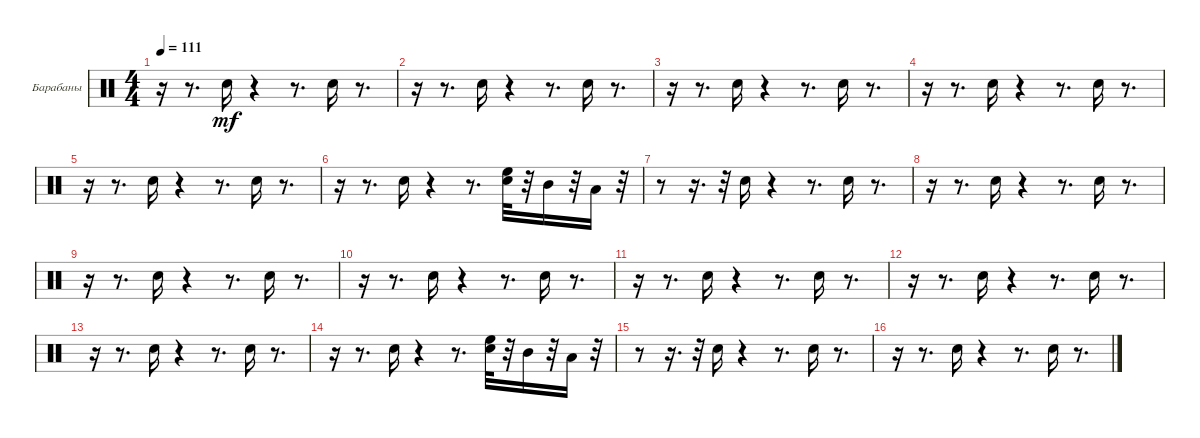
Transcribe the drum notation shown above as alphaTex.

\bracketExtendMode groupsimilarinstruments
\firstSystemTrackNameOrientation horizontal
\otherSystemsTrackNameOrientation horizontal
\track ("Барабаны" "Барабаны") {instrument percussion}
\staff {score}
\articulation defaults
\ts (4 4)
\tempo 111
\clef neutral
\ks c
r.16{dy mf} r.8{d} "Snare (hit) 2".16 r.4 r.8{d} "Snare (hit) 2".16 r.8{d} |
r.16 r.8{d} "Snare (hit) 2".16 r.4 r.8{d} "Snare (hit) 2".16 r.8{d} |
r.16 r.8{d} "Snare (hit) 2".16 r.4 r.8{d} "Snare (hit) 2".16 r.8{d} |
r.16 r.8{d} "Snare (hit) 2".16 r.4 r.8{d} "Snare (hit) 2".16 r.8{d} |
r.16 r.8{d} "Snare (hit) 2".16 r.4 r.8{d} "Snare (hit) 2".16 r.8{d} |
r.16 r.8{d} "Snare (hit) 2".16 r.4 r.8{d} ("Snare (hit) 2" "High Floor Tom (hit)").32 r.32 "Mid Tom (hit)".16 r.32 "Low Tom (hit)".16 r.32 |
r.8 r.16{d} r.32 "Snare (hit) 2".16 r.4 r.8{d} "Snare (hit) 2".16 r.8{d} |
r.16 r.8{d} "Snare (hit) 2".16 r.4 r.8{d} "Snare (hit) 2".16 r.8{d} |
r.16 r.8{d} "Snare (hit) 2".16 r.4 r.8{d} "Snare (hit) 2".16 r.8{d} |
r.16 r.8{d} "Snare (hit) 2".16 r.4 r.8{d} "Snare (hit) 2".16 r.8{d} |
r.16 r.8{d} "Snare (hit) 2".16 r.4 r.8{d} "Snare (hit) 2".16 r.8{d} |
r.16 r.8{d} "Snare (hit) 2".16 r.4 r.8{d} "Snare (hit) 2".16 r.8{d} |
r.16 r.8{d} "Snare (hit) 2".16 r.4 r.8{d} "Snare (hit) 2".16 r.8{d} |
r.16 r.8{d} "Snare (hit) 2".16 r.4 r.8{d} ("Snare (hit) 2" "High Floor Tom (hit)").32 r.32 "Mid Tom (hit)".16 r.32 "Low Tom (hit)".16 r.32 |
r.8 r.16{d} r.32 "Snare (hit) 2".16 r.4 r.8{d} "Snare (hit) 2".16 r.8{d} |
r.16 r.8{d} "Snare (hit) 2".16 r.4 r.8{d} "Snare (hit) 2".16 r.8{d}
